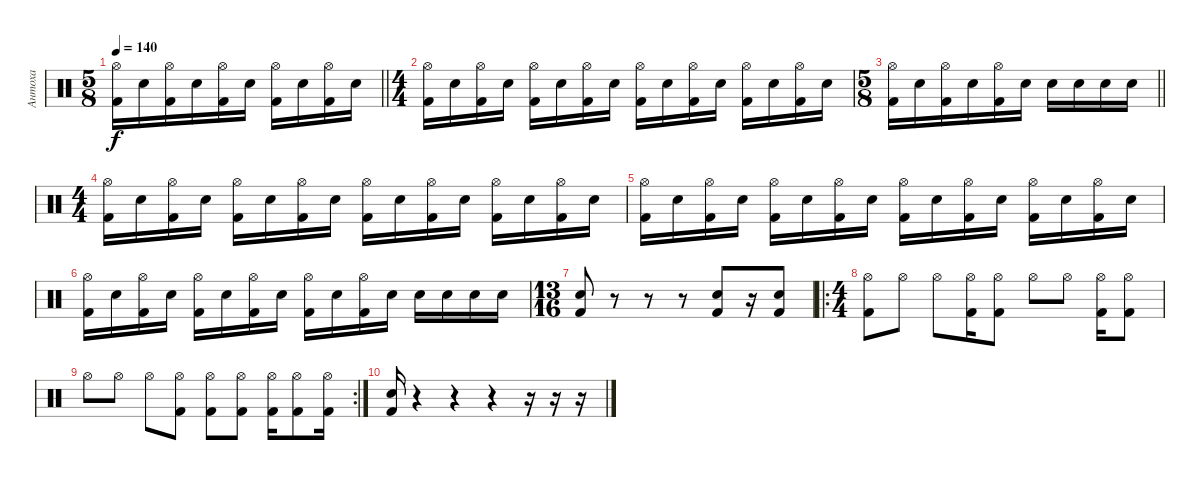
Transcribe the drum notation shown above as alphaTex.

\track ("Антоха" "Антоха") {instrument percussion}
\staff {score}
\articulation defaults
\ts (5 8)
\tempo 140
\clef neutral
\barLineRight lightlight
\ks c
("Hi-Hat (open)" "Kick (hit) 2").16{dy f} "Electric Snare (hit)".16 ("Hi-Hat (open)" "Kick (hit) 2").16 "Electric Snare (hit)".16 ("Hi-Hat (open)" "Kick (hit) 2").16 "Electric Snare (hit)".16 ("Hi-Hat (open)" "Kick (hit) 2").16 "Electric Snare (hit)".16 ("Hi-Hat (open)" "Kick (hit) 2").16 "Electric Snare (hit)".16 |
\ts (4 4)
("Hi-Hat (open)" "Kick (hit) 2").16 "Electric Snare (hit)".16 ("Hi-Hat (open)" "Kick (hit) 2").16 "Electric Snare (hit)".16 ("Hi-Hat (open)" "Kick (hit) 2").16 "Electric Snare (hit)".16 ("Hi-Hat (open)" "Kick (hit) 2").16 "Electric Snare (hit)".16 ("Hi-Hat (open)" "Kick (hit) 2").16 "Electric Snare (hit)".16 ("Hi-Hat (open)" "Kick (hit) 2").16 "Electric Snare (hit)".16 ("Hi-Hat (open)" "Kick (hit) 2").16 "Electric Snare (hit)".16 ("Hi-Hat (open)" "Kick (hit) 2").16 "Electric Snare (hit)".16 |
\ts (5 8)
\barLineRight lightlight
("Hi-Hat (open)" "Kick (hit) 2").16 "Electric Snare (hit)".16 ("Hi-Hat (open)" "Kick (hit) 2").16 "Electric Snare (hit)".16 ("Hi-Hat (open)" "Kick (hit) 2").16 "Electric Snare (hit)".16 "Electric Snare (hit)".16 "Electric Snare (hit)".16 "Electric Snare (hit)".16 "Electric Snare (hit)".16 |
\ts (4 4)
("Hi-Hat (open)" "Kick (hit) 2").16 "Electric Snare (hit)".16 ("Hi-Hat (open)" "Kick (hit) 2").16 "Electric Snare (hit)".16 ("Hi-Hat (open)" "Kick (hit) 2").16 "Electric Snare (hit)".16 ("Hi-Hat (open)" "Kick (hit) 2").16 "Electric Snare (hit)".16 ("Hi-Hat (open)" "Kick (hit) 2").16 "Electric Snare (hit)".16 ("Hi-Hat (open)" "Kick (hit) 2").16 "Electric Snare (hit)".16 ("Hi-Hat (open)" "Kick (hit) 2").16 "Electric Snare (hit)".16 ("Hi-Hat (open)" "Kick (hit) 2").16 "Electric Snare (hit)".16 |
("Hi-Hat (open)" "Kick (hit) 2").16 "Electric Snare (hit)".16 ("Hi-Hat (open)" "Kick (hit) 2").16 "Electric Snare (hit)".16 ("Hi-Hat (open)" "Kick (hit) 2").16 "Electric Snare (hit)".16 ("Hi-Hat (open)" "Kick (hit) 2").16 "Electric Snare (hit)".16 ("Hi-Hat (open)" "Kick (hit) 2").16 "Electric Snare (hit)".16 ("Hi-Hat (open)" "Kick (hit) 2").16 "Electric Snare (hit)".16 ("Hi-Hat (open)" "Kick (hit) 2").16 "Electric Snare (hit)".16 ("Hi-Hat (open)" "Kick (hit) 2").16 "Electric Snare (hit)".16 |
("Hi-Hat (open)" "Kick (hit) 2").16 "Electric Snare (hit)".16 ("Hi-Hat (open)" "Kick (hit) 2").16 "Electric Snare (hit)".16 ("Hi-Hat (open)" "Kick (hit) 2").16 "Electric Snare (hit)".16 ("Hi-Hat (open)" "Kick (hit) 2").16 "Electric Snare (hit)".16 ("Hi-Hat (open)" "Kick (hit) 2").16 "Electric Snare (hit)".16 ("Hi-Hat (open)" "Kick (hit) 2").16 "Electric Snare (hit)".16 "Electric Snare (hit)".16 "Electric Snare (hit)".16 "Electric Snare (hit)".16 "Electric Snare (hit)".16 |
\ts (13 16)
("Kick (hit) 2" "Electric Snare (hit)").8 r.8 r.8 r.8 ("Kick (hit) 2" "Electric Snare (hit)").8 r.16 ("Kick (hit) 2" "Electric Snare (hit)").8 |
\ro
\ts (4 4)
("Hi-Hat (open)" "Kick (hit) 2").8 "Hi-Hat (open)".8 "Hi-Hat (open)".8 ("Hi-Hat (open)" "Kick (hit) 2").16 ("Hi-Hat (open)" "Kick (hit) 2").8 "Hi-Hat (open)".8 "Hi-Hat (open)".8 ("Hi-Hat (open)" "Kick (hit) 2").16 ("Hi-Hat (open)" "Kick (hit) 2").8 |
\rc 2 "Hi-Hat (open)".8 "Hi-Hat (open)".8 "Hi-Hat (open)".8
("Hi-Hat (open)" "Kick (hit) 2").8 ("Hi-Hat (open)" "Kick (hit) 2").8 ("Hi-Hat (open)" "Kick (hit) 2").8 ("Hi-Hat (open)" "Kick (hit) 2").16 ("Hi-Hat (open)" "Kick (hit) 2").8 ("Hi-Hat (open)" "Kick (hit) 2").16 |
("Kick (hit) 2" "Electric Snare (hit)").16 r.4 r.4 r.4 r.16 r.16 r.16
